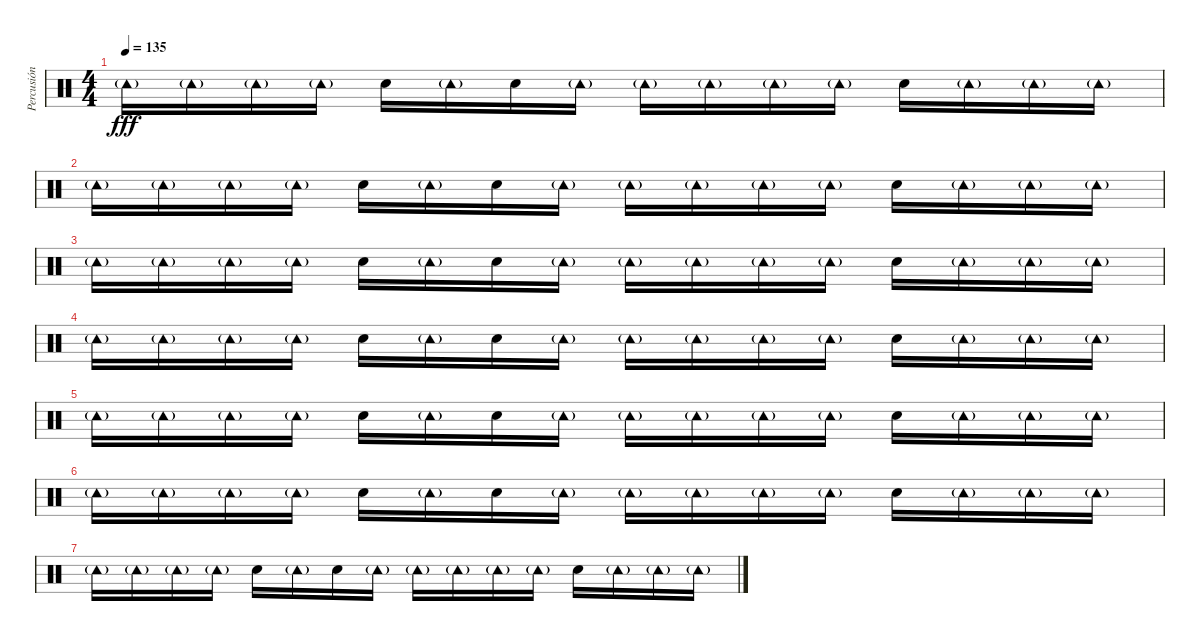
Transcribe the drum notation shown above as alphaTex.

\track ("Percusión" "Percusión") {instrument percussion}
\staff {score}
\articulation defaults
\ts (4 4)
\tempo 135
\clef neutral
\ks c "Tambourine (hit)"{g}.16{dy fff} "Tambourine (hit)"{g}.16 "Tambourine (hit)"{g}.16 "Tambourine (hit)"{g}.16 "Hand Clap (hit)".16 "Tambourine (hit)"{g}.16 "Hand Clap (hit)".16 "Tambourine (hit)"{g}.16 "Tambourine (hit)"{g}.16 "Tambourine (hit)"{g}.16 "Tambourine (hit)"{g}.16 "Tambourine (hit)"{g}.16 "Hand Clap (hit)".16 "Tambourine (hit)"{g}.16 "Tambourine (hit)"{g}.16 "Tambourine (hit)"{g}.16
|
"Tambourine (hit)"{g}.16 "Tambourine (hit)"{g}.16 "Tambourine (hit)"{g}.16 "Tambourine (hit)"{g}.16 "Hand Clap (hit)".16 "Tambourine (hit)"{g}.16 "Hand Clap (hit)".16 "Tambourine (hit)"{g}.16 "Tambourine (hit)"{g}.16 "Tambourine (hit)"{g}.16 "Tambourine (hit)"{g}.16 "Tambourine (hit)"{g}.16 "Hand Clap (hit)".16 "Tambourine (hit)"{g}.16 "Tambourine (hit)"{g}.16 "Tambourine (hit)"{g}.16 |
"Tambourine (hit)"{g}.16 "Tambourine (hit)"{g}.16 "Tambourine (hit)"{g}.16 "Tambourine (hit)"{g}.16 "Hand Clap (hit)".16 "Tambourine (hit)"{g}.16 "Hand Clap (hit)".16 "Tambourine (hit)"{g}.16 "Tambourine (hit)"{g}.16 "Tambourine (hit)"{g}.16 "Tambourine (hit)"{g}.16 "Tambourine (hit)"{g}.16 "Hand Clap (hit)".16 "Tambourine (hit)"{g}.16 "Tambourine (hit)"{g}.16 "Tambourine (hit)"{g}.16 |
"Tambourine (hit)"{g}.16 "Tambourine (hit)"{g}.16 "Tambourine (hit)"{g}.16 "Tambourine (hit)"{g}.16 "Hand Clap (hit)".16 "Tambourine (hit)"{g}.16 "Hand Clap (hit)".16 "Tambourine (hit)"{g}.16 "Tambourine (hit)"{g}.16 "Tambourine (hit)"{g}.16 "Tambourine (hit)"{g}.16 "Tambourine (hit)"{g}.16 "Hand Clap (hit)".16 "Tambourine (hit)"{g}.16 "Tambourine (hit)"{g}.16 "Tambourine (hit)"{g}.16 |
"Tambourine (hit)"{g}.16 "Tambourine (hit)"{g}.16 "Tambourine (hit)"{g}.16 "Tambourine (hit)"{g}.16 "Hand Clap (hit)".16 "Tambourine (hit)"{g}.16 "Hand Clap (hit)".16 "Tambourine (hit)"{g}.16 "Tambourine (hit)"{g}.16 "Tambourine (hit)"{g}.16 "Tambourine (hit)"{g}.16 "Tambourine (hit)"{g}.16 "Hand Clap (hit)".16 "Tambourine (hit)"{g}.16 "Tambourine (hit)"{g}.16 "Tambourine (hit)"{g}.16 |
"Tambourine (hit)"{g}.16 "Tambourine (hit)"{g}.16 "Tambourine (hit)"{g}.16 "Tambourine (hit)"{g}.16 "Hand Clap (hit)".16 "Tambourine (hit)"{g}.16 "Hand Clap (hit)".16 "Tambourine (hit)"{g}.16 "Tambourine (hit)"{g}.16 "Tambourine (hit)"{g}.16 "Tambourine (hit)"{g}.16 "Tambourine (hit)"{g}.16 "Hand Clap (hit)".16 "Tambourine (hit)"{g}.16 "Tambourine (hit)"{g}.16 "Tambourine (hit)"{g}.16 |
"Tambourine (hit)"{g}.16 "Tambourine (hit)"{g}.16 "Tambourine (hit)"{g}.16 "Tambourine (hit)"{g}.16 "Hand Clap (hit)".16 "Tambourine (hit)"{g}.16 "Hand Clap (hit)".16 "Tambourine (hit)"{g}.16 "Tambourine (hit)"{g}.16 "Tambourine (hit)"{g}.16 "Tambourine (hit)"{g}.16 "Tambourine (hit)"{g}.16 "Hand Clap (hit)".16 "Tambourine (hit)"{g}.16 "Tambourine (hit)"{g}.16 "Tambourine (hit)"{g}.16
